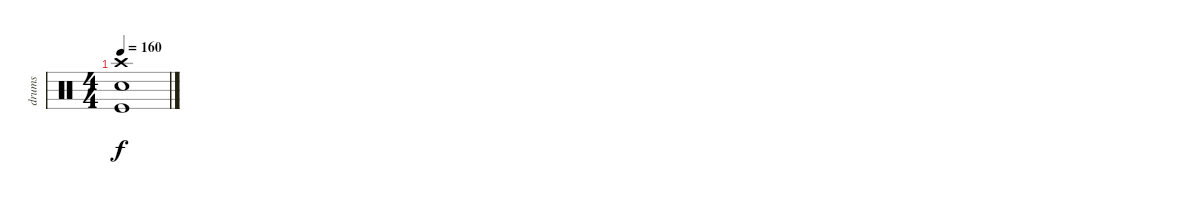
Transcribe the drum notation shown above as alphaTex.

\track ("drums" "drums") {instrument percussion}
\staff {score}
\articulation defaults
\ts (4 4)
\tempo 160
\clef neutral
\ks c
("Kick (hit)" "Snare (hit) 2" "Crash high (hit)").1{dy f}
